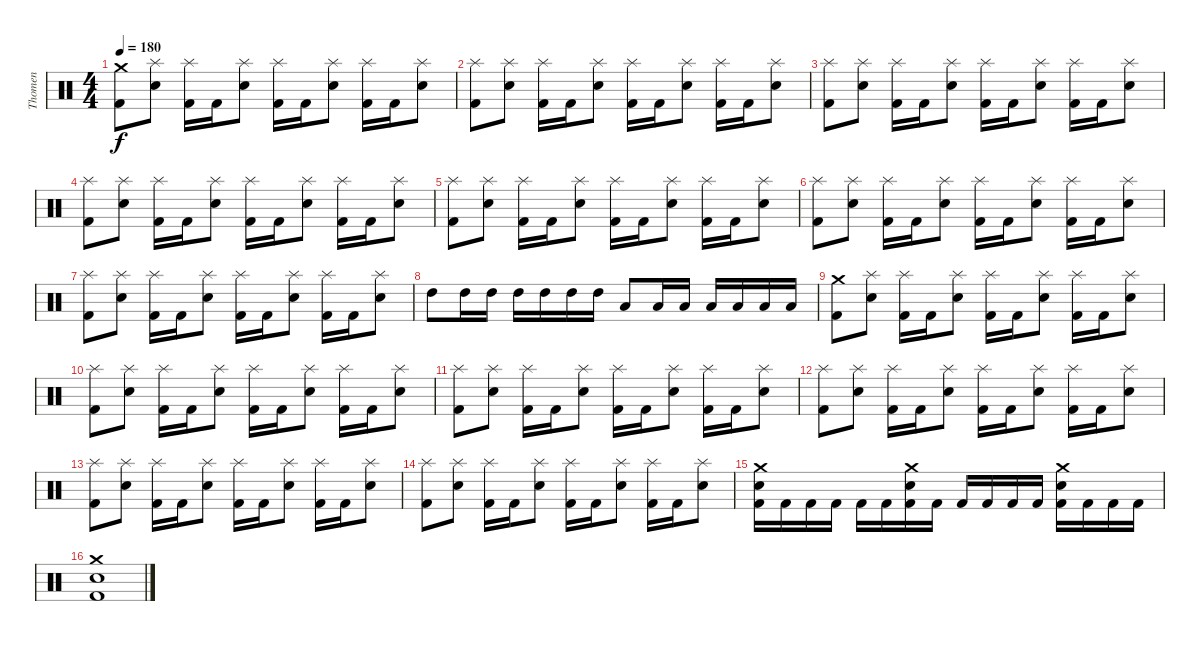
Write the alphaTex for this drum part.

\track ("Thomen" "Thomen") {instrument percussion}
\staff {score}
\articulation defaults
\ts (4 4)
\tempo 180
\clef neutral
\ks c
("Crash medium (hit)" "Kick (hit) 2").8{dy f} ("Splash (hit)" "Electric Snare (hit)").8 ("Splash (hit)" "Kick (hit) 2").16 "Kick (hit) 2".16 ("Splash (hit)" "Electric Snare (hit)").8 ("Splash (hit)" "Kick (hit) 2").16 "Kick (hit) 2".16 ("Splash (hit)" "Electric Snare (hit)").8 ("Splash (hit)" "Kick (hit) 2").16 "Kick (hit) 2".16 ("Splash (hit)" "Electric Snare (hit)").8 |
("Splash (hit)" "Kick (hit) 2").8 ("Splash (hit)" "Electric Snare (hit)").8 ("Splash (hit)" "Kick (hit) 2").16 "Kick (hit) 2".16 ("Splash (hit)" "Electric Snare (hit)").8 ("Splash (hit)" "Kick (hit) 2").16 "Kick (hit) 2".16 ("Splash (hit)" "Electric Snare (hit)").8 ("Splash (hit)" "Kick (hit) 2").16 "Kick (hit) 2".16 ("Splash (hit)" "Electric Snare (hit)").8 |
("Splash (hit)" "Kick (hit) 2").8 ("Splash (hit)" "Electric Snare (hit)").8 ("Splash (hit)" "Kick (hit) 2").16 "Kick (hit) 2".16 ("Splash (hit)" "Electric Snare (hit)").8 ("Splash (hit)" "Kick (hit) 2").16 "Kick (hit) 2".16 ("Splash (hit)" "Electric Snare (hit)").8 ("Splash (hit)" "Kick (hit) 2").16 "Kick (hit) 2".16 ("Splash (hit)" "Electric Snare (hit)").8 |
("Splash (hit)" "Kick (hit) 2").8 ("Splash (hit)" "Electric Snare (hit)").8 ("Splash (hit)" "Kick (hit) 2").16 "Kick (hit) 2".16 ("Splash (hit)" "Electric Snare (hit)").8 ("Splash (hit)" "Kick (hit) 2").16 "Kick (hit) 2".16 ("Splash (hit)" "Electric Snare (hit)").8 ("Splash (hit)" "Kick (hit) 2").16 "Kick (hit) 2".16 ("Splash (hit)" "Electric Snare (hit)").8 |
("Splash (hit)" "Kick (hit) 2").8 ("Splash (hit)" "Electric Snare (hit)").8 ("Splash (hit)" "Kick (hit) 2").16 "Kick (hit) 2".16 ("Splash (hit)" "Electric Snare (hit)").8 ("Splash (hit)" "Kick (hit) 2").16 "Kick (hit) 2".16 ("Splash (hit)" "Electric Snare (hit)").8 ("Splash (hit)" "Kick (hit) 2").16 "Kick (hit) 2".16 ("Splash (hit)" "Electric Snare (hit)").8 |
("Splash (hit)" "Kick (hit) 2").8 ("Splash (hit)" "Electric Snare (hit)").8 ("Splash (hit)" "Kick (hit) 2").16 "Kick (hit) 2".16 ("Splash (hit)" "Electric Snare (hit)").8 ("Splash (hit)" "Kick (hit) 2").16 "Kick (hit) 2".16 ("Splash (hit)" "Electric Snare (hit)").8 ("Splash (hit)" "Kick (hit) 2").16 "Kick (hit) 2".16 ("Splash (hit)" "Electric Snare (hit)").8 |
("Splash (hit)" "Kick (hit) 2").8 ("Splash (hit)" "Electric Snare (hit)").8 ("Splash (hit)" "Kick (hit) 2").16 "Kick (hit) 2".16 ("Splash (hit)" "Electric Snare (hit)").8 ("Splash (hit)" "Kick (hit) 2").16 "Kick (hit) 2".16 ("Splash (hit)" "Electric Snare (hit)").8 ("Splash (hit)" "Kick (hit) 2").16 "Kick (hit) 2".16 ("Splash (hit)" "Electric Snare (hit)").8 |
"High Tom (hit)".8 "High Tom (hit)".16 "High Tom (hit)".16 "High Tom (hit)".16 "High Tom (hit)".16 "High Tom (hit)".16 "High Tom (hit)".16 "Low Tom (hit)".8 "Low Tom (hit)".16 "Low Tom (hit)".16 "Low Tom (hit)".16 "Low Tom (hit)".16 "Low Tom (hit)".16 "Low Tom (hit)".16 |
("Crash medium (hit)" "Kick (hit) 2").8 ("Splash (hit)" "Electric Snare (hit)").8 ("Splash (hit)" "Kick (hit) 2").16 "Kick (hit) 2".16 ("Splash (hit)" "Electric Snare (hit)").8 ("Splash (hit)" "Kick (hit) 2").16 "Kick (hit) 2".16 ("Splash (hit)" "Electric Snare (hit)").8 ("Splash (hit)" "Kick (hit) 2").16 "Kick (hit) 2".16 ("Splash (hit)" "Electric Snare (hit)").8 |
("Splash (hit)" "Kick (hit) 2").8 ("Splash (hit)" "Electric Snare (hit)").8 ("Splash (hit)" "Kick (hit) 2").16 "Kick (hit) 2".16 ("Splash (hit)" "Electric Snare (hit)").8 ("Splash (hit)" "Kick (hit) 2").16 "Kick (hit) 2".16 ("Splash (hit)" "Electric Snare (hit)").8 ("Splash (hit)" "Kick (hit) 2").16 "Kick (hit) 2".16 ("Splash (hit)" "Electric Snare (hit)").8 |
("Splash (hit)" "Kick (hit) 2").8 ("Splash (hit)" "Electric Snare (hit)").8 ("Splash (hit)" "Kick (hit) 2").16 "Kick (hit) 2".16 ("Splash (hit)" "Electric Snare (hit)").8 ("Splash (hit)" "Kick (hit) 2").16 "Kick (hit) 2".16 ("Splash (hit)" "Electric Snare (hit)").8 ("Splash (hit)" "Kick (hit) 2").16 "Kick (hit) 2".16 ("Splash (hit)" "Electric Snare (hit)").8 |
("Splash (hit)" "Kick (hit) 2").8 ("Splash (hit)" "Electric Snare (hit)").8 ("Splash (hit)" "Kick (hit) 2").16 "Kick (hit) 2".16 ("Splash (hit)" "Electric Snare (hit)").8 ("Splash (hit)" "Kick (hit) 2").16 "Kick (hit) 2".16 ("Splash (hit)" "Electric Snare (hit)").8 ("Splash (hit)" "Kick (hit) 2").16 "Kick (hit) 2".16 ("Splash (hit)" "Electric Snare (hit)").8 |
("Splash (hit)" "Kick (hit) 2").8 ("Splash (hit)" "Electric Snare (hit)").8 ("Splash (hit)" "Kick (hit) 2").16 "Kick (hit) 2".16 ("Splash (hit)" "Electric Snare (hit)").8 ("Splash (hit)" "Kick (hit) 2").16 "Kick (hit) 2".16 ("Splash (hit)" "Electric Snare (hit)").8 ("Splash (hit)" "Kick (hit) 2").16 "Kick (hit) 2".16 ("Splash (hit)" "Electric Snare (hit)").8 |
("Splash (hit)" "Kick (hit) 2").8 ("Splash (hit)" "Electric Snare (hit)").8 ("Splash (hit)" "Kick (hit) 2").16 "Kick (hit) 2".16 ("Splash (hit)" "Electric Snare (hit)").8 ("Splash (hit)" "Kick (hit) 2").16 "Kick (hit) 2".16 ("Splash (hit)" "Electric Snare (hit)").8 ("Splash (hit)" "Kick (hit) 2").16 "Kick (hit) 2".16 ("Splash (hit)" "Electric Snare (hit)").8 |
("Crash medium (hit)" "Electric Snare (hit)" "Kick (hit) 2").16 "Kick (hit) 2".16 "Kick (hit) 2".16 "Kick (hit) 2".16 "Kick (hit) 2".16 "Kick (hit) 2".16 ("Crash medium (hit)" "Electric Snare (hit)" "Kick (hit) 2").16 "Kick (hit) 2".16 "Kick (hit) 2".16 "Kick (hit) 2".16 "Kick (hit) 2".16 "Kick (hit) 2".16 ("Crash medium (hit)" "Electric Snare (hit)" "Kick (hit) 2").16 "Kick (hit) 2".16 "Kick (hit) 2".16 "Kick (hit) 2".16 |
("Crash medium (hit)" "Electric Snare (hit)" "Kick (hit) 2").1
